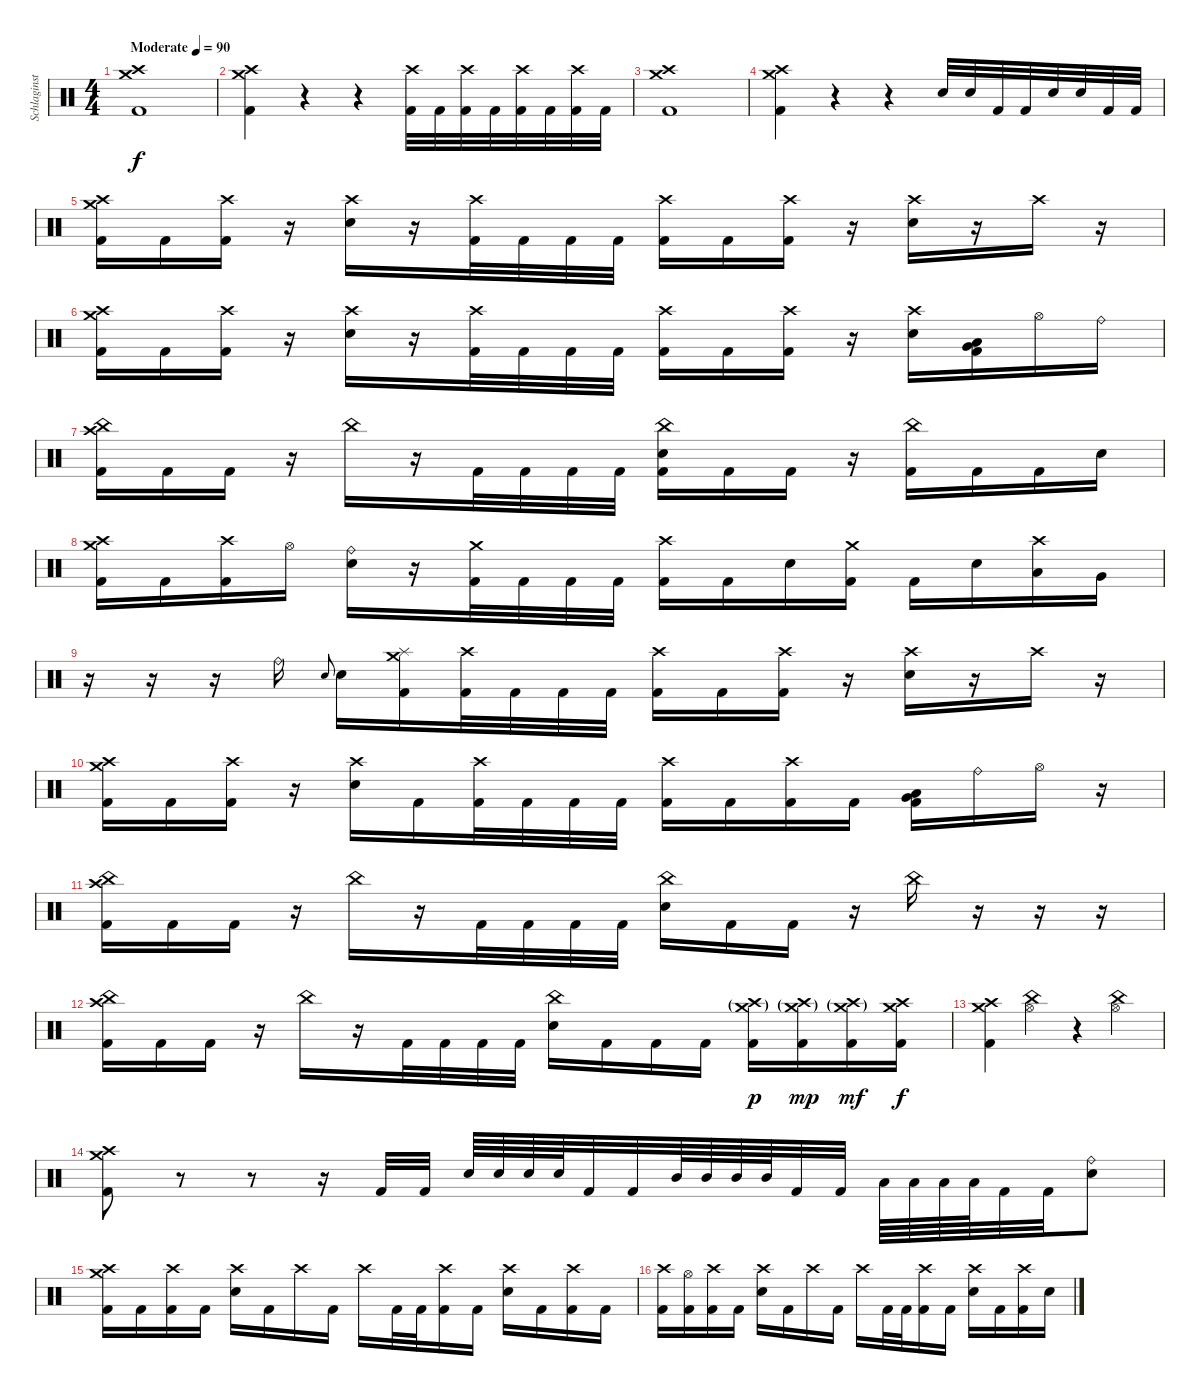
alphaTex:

\track ("Schlaginstrumente - Auswahl" "Schlaginst") {instrument percussion}
\staff {score}
\articulation defaults
\ts (4 4)
\tempo (90 "Moderate")
\clef neutral
\ks c
("Crash high (hit)" "Crash medium (hit)" "Kick (hit) 2").1{dy f} |
("Crash high (hit)" "Crash medium (hit)" "Kick (hit) 2").4 r.4 r.4 ("Crash high (hit)" "Kick (hit) 2").32 "Kick (hit) 2".32 ("Crash high (hit)" "Kick (hit) 2").32 "Kick (hit) 2".32 ("Crash high (hit)" "Kick (hit) 2").32 "Kick (hit) 2".32 ("Crash high (hit)" "Kick (hit) 2").32 "Kick (hit) 2".32 |
("Crash high (hit)" "Crash medium (hit)" "Kick (hit) 2").1 |
("Crash high (hit)" "Crash medium (hit)" "Kick (hit) 2").4 r.4 r.4 "Electric Snare (hit)".32 "Electric Snare (hit)".32 "Kick (hit) 2".32 "Kick (hit) 2".32 "Electric Snare (hit)".32 "Electric Snare (hit)".32 "Kick (hit) 2".32 "Kick (hit) 2".32 |
("Crash high (hit)" "Crash medium (hit)" "Kick (hit) 2").16 "Kick (hit) 2".16 ("Crash high (hit)" "Kick (hit) 2").16 r.16 ("Crash high (hit)" "Electric Snare (hit)").16 r.16 ("Crash high (hit)" "Kick (hit) 2").32 "Kick (hit) 2".32 "Kick (hit) 2".32 "Kick (hit) 2".32 ("Crash high (hit)" "Kick (hit) 2").16 "Kick (hit) 2".16 ("Crash high (hit)" "Kick (hit) 2").16 r.16 ("Crash high (hit)" "Electric Snare (hit)").16 r.16 "Crash high (hit)".16 r.16 |
("Crash high (hit)" "Crash medium (hit)" "Kick (hit) 2").16 "Kick (hit) 2".16 ("Crash high (hit)" "Kick (hit) 2").16 r.16 ("Crash high (hit)" "Electric Snare (hit)").16 r.16 ("Crash high (hit)" "Kick (hit) 2").32 "Kick (hit) 2".32 "Kick (hit) 2".32 "Kick (hit) 2".32 ("Crash high (hit)" "Kick (hit) 2").16 "Kick (hit) 2".16 ("Crash high (hit)" "Kick (hit) 2").16 r.16 ("Crash high (hit)" "Electric Snare (hit)").16 ("Very Low Tom (hit)" "Low Floor Tom (hit)" "Kick (hit) 2").16 "Hi-Hat (open)".16 "Ride (bell)".16 |
("Crash high (hit)" "China (hit)" "Kick (hit) 2").16 "Kick (hit) 2".16 "Kick (hit) 2".16 r.16 "China (hit)".16 r.16 "Kick (hit) 2".32 "Kick (hit) 2".32 "Kick (hit) 2".32 "Kick (hit) 2".32 ("China (hit)" "Electric Snare (hit)" "Kick (hit) 2").16 "Kick (hit) 2".16 "Kick (hit) 2".16 r.16 ("China (hit)" "Kick (hit) 2").16 "Kick (hit) 2".16 "Kick (hit) 2".16 "Electric Snare (hit)".16 |
("Crash high (hit)" "Crash medium (hit)" "Kick (hit) 2").16 "Kick (hit) 2".16 ("Crash high (hit)" "Kick (hit) 2").16 "Hi-Hat (open)".16 ("Ride (bell)" "Electric Snare (hit)").16 r.16 ("Crash medium (hit)" "Kick (hit) 2").32 "Kick (hit) 2".32 "Kick (hit) 2".32 "Kick (hit) 2".32 ("Crash high (hit)" "Kick (hit) 2").16 "Kick (hit) 2".16 "Electric Snare (hit)".16 ("Crash medium (hit)" "Kick (hit) 2").16 "Kick (hit) 2".16 "Electric Snare (hit)".16 ("Crash high (hit)" "Low Tom (hit)").16 "Very Low Tom (hit)".16 |
r.16 r.16 r.16 "Ride (bell)".16 "Electric Snare (hit)".8{gr onbeat} "Electric Snare (hit)".16 ("Splash (hit)" "Crash medium (hit)" "Kick (hit) 2").16 ("Crash high (hit)" "Kick (hit) 2").32 "Kick (hit) 2".32 "Kick (hit) 2".32 "Kick (hit) 2".32 ("Crash high (hit)" "Kick (hit) 2").16 "Kick (hit) 2".16 ("Crash high (hit)" "Kick (hit) 2").16 r.16 ("Crash high (hit)" "Electric Snare (hit)").16 r.16 "Crash high (hit)".16 r.16 |
("Crash high (hit)" "Crash medium (hit)" "Kick (hit) 2").16 "Kick (hit) 2".16 ("Crash high (hit)" "Kick (hit) 2").16 r.16 ("Crash high (hit)" "Electric Snare (hit)").16 "Kick (hit) 2".16 ("Crash high (hit)" "Kick (hit) 2").32 "Kick (hit) 2".32 "Kick (hit) 2".32 "Kick (hit) 2".32 ("Crash high (hit)" "Kick (hit) 2").16 "Kick (hit) 2".16 ("Crash high (hit)" "Kick (hit) 2").16 "Kick (hit) 2".16 ("Very Low Tom (hit)" "Low Floor Tom (hit)" "Kick (hit) 2").16 "Ride (bell)".16 "Hi-Hat (open)".16 r.16 |
("Crash high (hit)" "China (hit)" "Kick (hit) 2").16 "Kick (hit) 2".16 "Kick (hit) 2".16 r.16 "China (hit)".16 r.16 "Kick (hit) 2".32 "Kick (hit) 2".32 "Kick (hit) 2".32 "Kick (hit) 2".32 ("China (hit)" "Electric Snare (hit)").16 "Kick (hit) 2".16 "Kick (hit) 2".16 r.16 "China (hit)".16 r.16 r.16 r.16 |
("Crash high (hit)" "China (hit)" "Kick (hit) 2").16 "Kick (hit) 2".16 "Kick (hit) 2".16 r.16 "China (hit)".16 r.16 "Kick (hit) 2".32 "Kick (hit) 2".32 "Kick (hit) 2".32 "Kick (hit) 2".32 ("China (hit)" "Electric Snare (hit)").16 "Kick (hit) 2".16 "Kick (hit) 2".16 "Kick (hit) 2".16 ("Crash medium (hit)"{g} "Crash high (hit)"{g} "Kick (hit) 2").16{dy p} ("Crash medium (hit)"{g} "Crash high (hit)"{g} "Kick (hit) 2").16{dy mp} ("Crash medium (hit)"{g} "Crash high (hit)"{g} "Kick (hit) 2").16{dy mf} ("Crash medium (hit)" "Crash high (hit)" "Kick (hit) 2").16{dy f} |
("Crash high (hit)" "Crash medium (hit)" "Kick (hit) 2").4 ("China (hit)" "Hi-Hat (open)").4 r.4 ("China (hit)" "Hi-Hat (open)").4 |
("Crash high (hit)" "Crash medium (hit)" "Kick (hit) 2").8 r.8 r.8 r.16 "Kick (hit) 2".32 "Kick (hit) 2".32 "Electric Snare (hit)".64 "Electric Snare (hit)".64 "Electric Snare (hit)".64 "Electric Snare (hit)".64 "Kick (hit) 2".32 "Kick (hit) 2".32 "Mid Tom (hit)".64 "Mid Tom (hit)".64 "Mid Tom (hit)".64 "Mid Tom (hit)".64 "Kick (hit) 2".32 "Kick (hit) 2".32 "Low Tom (hit)".64 "Low Tom (hit)".64 "Low Tom (hit)".64 "Low Tom (hit)".64 "Kick (hit) 2".32 "Kick (hit) 2".32 ("Ride (bell)" "Electric Snare (hit)").8 |
("Crash high (hit)" "Crash medium (hit)" "Kick (hit) 2").16 "Kick (hit) 2".16 ("Crash high (hit)" "Kick (hit) 2").16 "Kick (hit) 2".16 ("Crash high (hit)" "Electric Snare (hit)").16 "Kick (hit) 2".16 "Crash high (hit)".16 "Kick (hit) 2".16 "Crash high (hit)".16 "Kick (hit) 2".32 "Kick (hit) 2".32 ("Crash high (hit)" "Kick (hit) 2").16 "Kick (hit) 2".16 ("Crash high (hit)" "Electric Snare (hit)").16 "Kick (hit) 2".16 ("Crash high (hit)" "Kick (hit) 2").16 "Kick (hit) 2".16 |
("Crash high (hit)" "Kick (hit) 2").16 ("Hi-Hat (open)" "Kick (hit) 2").16 ("Crash high (hit)" "Kick (hit) 2").16 "Kick (hit) 2".16 ("Crash high (hit)" "Electric Snare (hit)").16 "Kick (hit) 2".16 "Crash high (hit)".16 "Kick (hit) 2".16 "Crash high (hit)".16 "Kick (hit) 2".32 "Kick (hit) 2".32 ("Crash high (hit)" "Kick (hit) 2").16 "Kick (hit) 2".16 ("Crash high (hit)" "Electric Snare (hit)").16 "Kick (hit) 2".16 ("Crash high (hit)" "Kick (hit) 2").16 "Electric Snare (hit)".16
